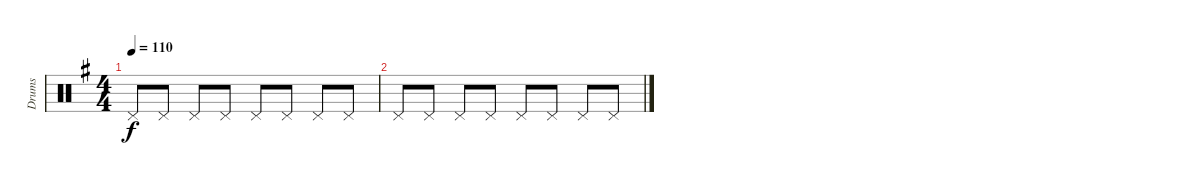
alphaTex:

\track ("Drums" "Drums") {instrument percussion}
\staff {score}
\articulation defaults
\ts (4 4)
\tempo 110
\clef neutral
\ks g "Pedal Hi-Hat (hit)".8{dy f} "Pedal Hi-Hat (hit)".8 "Pedal Hi-Hat (hit)".8 "Pedal Hi-Hat (hit)".8 "Pedal Hi-Hat (hit)".8 "Pedal Hi-Hat (hit)".8 "Pedal Hi-Hat (hit)".8 "Pedal Hi-Hat (hit)".8
|
"Pedal Hi-Hat (hit)".8 "Pedal Hi-Hat (hit)".8 "Pedal Hi-Hat (hit)".8 "Pedal Hi-Hat (hit)".8 "Pedal Hi-Hat (hit)".8 "Pedal Hi-Hat (hit)".8 "Pedal Hi-Hat (hit)".8 "Pedal Hi-Hat (hit)".8
